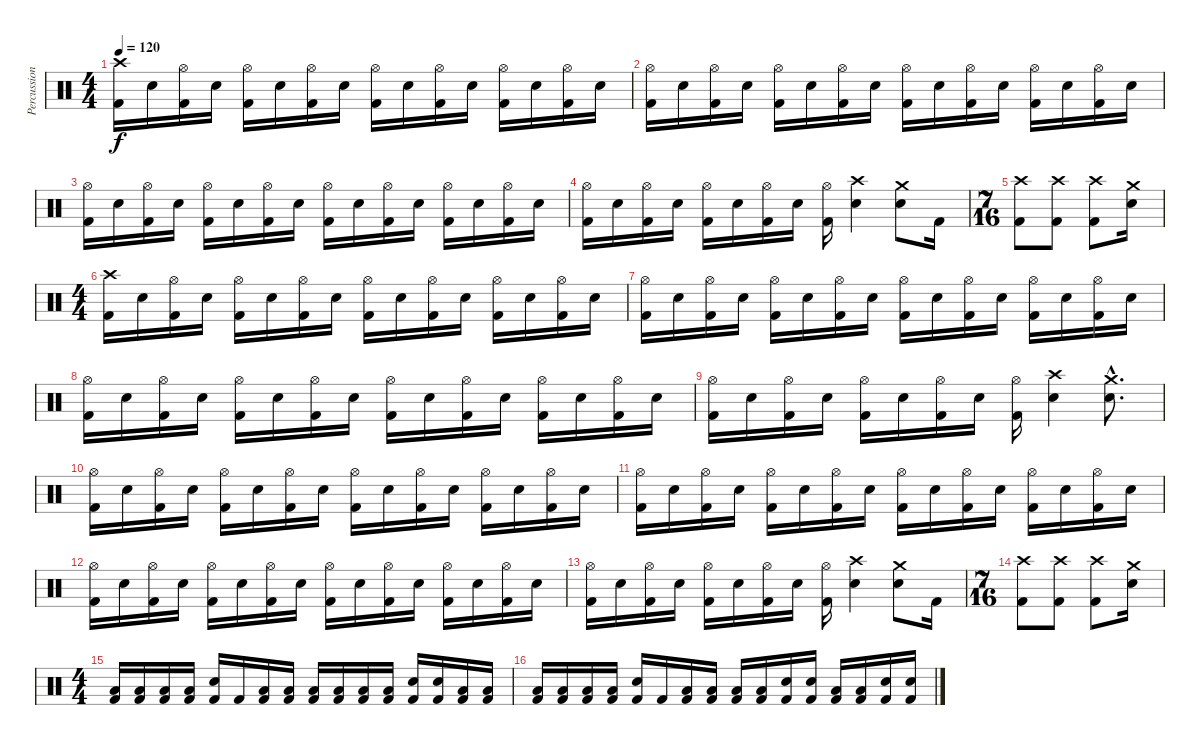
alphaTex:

\track ("Percussion" "Percussion") {instrument percussion}
\staff {score}
\articulation defaults
\ts (4 4)
\tempo 120
\clef neutral
\ks c
("Crash high (hit)" "Kick (hit) 2").16{dy f} "Electric Snare (hit)".16 ("Hi-Hat (open)" "Kick (hit) 2").16 "Electric Snare (hit)".16 ("Hi-Hat (open)" "Kick (hit) 2").16 "Electric Snare (hit)".16 ("Hi-Hat (open)" "Kick (hit) 2").16 "Electric Snare (hit)".16 ("Hi-Hat (open)" "Kick (hit) 2").16 "Electric Snare (hit)".16 ("Hi-Hat (open)" "Kick (hit) 2").16 "Electric Snare (hit)".16 ("Hi-Hat (open)" "Kick (hit) 2").16 "Electric Snare (hit)".16 ("Hi-Hat (open)" "Kick (hit) 2").16 "Electric Snare (hit)".16 |
("Hi-Hat (open)" "Kick (hit) 2").16 "Electric Snare (hit)".16 ("Hi-Hat (open)" "Kick (hit) 2").16 "Electric Snare (hit)".16 ("Hi-Hat (open)" "Kick (hit) 2").16 "Electric Snare (hit)".16 ("Hi-Hat (open)" "Kick (hit) 2").16 "Electric Snare (hit)".16 ("Hi-Hat (open)" "Kick (hit) 2").16 "Electric Snare (hit)".16 ("Hi-Hat (open)" "Kick (hit) 2").16 "Electric Snare (hit)".16 ("Hi-Hat (open)" "Kick (hit) 2").16 "Electric Snare (hit)".16 ("Hi-Hat (open)" "Kick (hit) 2").16 "Electric Snare (hit)".16 |
("Hi-Hat (open)" "Kick (hit) 2").16 "Electric Snare (hit)".16 ("Hi-Hat (open)" "Kick (hit) 2").16 "Electric Snare (hit)".16 ("Hi-Hat (open)" "Kick (hit) 2").16 "Electric Snare (hit)".16 ("Hi-Hat (open)" "Kick (hit) 2").16 "Electric Snare (hit)".16 ("Hi-Hat (open)" "Kick (hit) 2").16 "Electric Snare (hit)".16 ("Hi-Hat (open)" "Kick (hit) 2").16 "Electric Snare (hit)".16 ("Hi-Hat (open)" "Kick (hit) 2").16 "Electric Snare (hit)".16 ("Hi-Hat (open)" "Kick (hit) 2").16 "Electric Snare (hit)".16 |
("Hi-Hat (open)" "Kick (hit) 2").16 "Electric Snare (hit)".16 ("Hi-Hat (open)" "Kick (hit) 2").16 "Electric Snare (hit)".16 ("Hi-Hat (open)" "Kick (hit) 2").16 "Electric Snare (hit)".16 ("Hi-Hat (open)" "Kick (hit) 2").16 "Electric Snare (hit)".16 ("Hi-Hat (open)" "Kick (hit) 2").16 ("Crash high (hit)" "Electric Snare (hit)").4 ("Crash medium (hit)" "Electric Snare (hit)").8 "Kick (hit) 2".16 |
\ts (7 16)
("Crash high (hit)" "Kick (hit) 2").8 ("Crash high (hit)" "Kick (hit) 2").8 ("Crash high (hit)" "Kick (hit) 2").8 ("Crash medium (hit)" "Electric Snare (hit)").16 |
\ts (4 4)
("Crash high (hit)" "Kick (hit) 2").16 "Electric Snare (hit)".16 ("Hi-Hat (open)" "Kick (hit) 2").16 "Electric Snare (hit)".16 ("Hi-Hat (open)" "Kick (hit) 2").16 "Electric Snare (hit)".16 ("Hi-Hat (open)" "Kick (hit) 2").16 "Electric Snare (hit)".16 ("Hi-Hat (open)" "Kick (hit) 2").16 "Electric Snare (hit)".16 ("Hi-Hat (open)" "Kick (hit) 2").16 "Electric Snare (hit)".16 ("Hi-Hat (open)" "Kick (hit) 2").16 "Electric Snare (hit)".16 ("Hi-Hat (open)" "Kick (hit) 2").16 "Electric Snare (hit)".16 |
("Hi-Hat (open)" "Kick (hit) 2").16 "Electric Snare (hit)".16 ("Hi-Hat (open)" "Kick (hit) 2").16 "Electric Snare (hit)".16 ("Hi-Hat (open)" "Kick (hit) 2").16 "Electric Snare (hit)".16 ("Hi-Hat (open)" "Kick (hit) 2").16 "Electric Snare (hit)".16 ("Hi-Hat (open)" "Kick (hit) 2").16 "Electric Snare (hit)".16 ("Hi-Hat (open)" "Kick (hit) 2").16 "Electric Snare (hit)".16 ("Hi-Hat (open)" "Kick (hit) 2").16 "Electric Snare (hit)".16 ("Hi-Hat (open)" "Kick (hit) 2").16 "Electric Snare (hit)".16 |
("Hi-Hat (open)" "Kick (hit) 2").16 "Electric Snare (hit)".16 ("Hi-Hat (open)" "Kick (hit) 2").16 "Electric Snare (hit)".16 ("Hi-Hat (open)" "Kick (hit) 2").16 "Electric Snare (hit)".16 ("Hi-Hat (open)" "Kick (hit) 2").16 "Electric Snare (hit)".16 ("Hi-Hat (open)" "Kick (hit) 2").16 "Electric Snare (hit)".16 ("Hi-Hat (open)" "Kick (hit) 2").16 "Electric Snare (hit)".16 ("Hi-Hat (open)" "Kick (hit) 2").16 "Electric Snare (hit)".16 ("Hi-Hat (open)" "Kick (hit) 2").16 "Electric Snare (hit)".16 |
("Hi-Hat (open)" "Kick (hit) 2").16 "Electric Snare (hit)".16 ("Hi-Hat (open)" "Kick (hit) 2").16 "Electric Snare (hit)".16 ("Hi-Hat (open)" "Kick (hit) 2").16 "Electric Snare (hit)".16 ("Hi-Hat (open)" "Kick (hit) 2").16 "Electric Snare (hit)".16 ("Hi-Hat (open)" "Kick (hit) 2").16 ("Crash high (hit)" "Electric Snare (hit)").4 ("Crash medium (hit)"{hac} "Electric Snare (hit)"{hac}).8{d} |
("Hi-Hat (open)" "Kick (hit) 2").16 "Electric Snare (hit)".16 ("Hi-Hat (open)" "Kick (hit) 2").16 "Electric Snare (hit)".16 ("Hi-Hat (open)" "Kick (hit) 2").16 "Electric Snare (hit)".16 ("Hi-Hat (open)" "Kick (hit) 2").16 "Electric Snare (hit)".16 ("Hi-Hat (open)" "Kick (hit) 2").16 "Electric Snare (hit)".16 ("Hi-Hat (open)" "Kick (hit) 2").16 "Electric Snare (hit)".16 ("Hi-Hat (open)" "Kick (hit) 2").16 "Electric Snare (hit)".16 ("Hi-Hat (open)" "Kick (hit) 2").16 "Electric Snare (hit)".16 |
("Hi-Hat (open)" "Kick (hit) 2").16 "Electric Snare (hit)".16 ("Hi-Hat (open)" "Kick (hit) 2").16 "Electric Snare (hit)".16 ("Hi-Hat (open)" "Kick (hit) 2").16 "Electric Snare (hit)".16 ("Hi-Hat (open)" "Kick (hit) 2").16 "Electric Snare (hit)".16 ("Hi-Hat (open)" "Kick (hit) 2").16 "Electric Snare (hit)".16 ("Hi-Hat (open)" "Kick (hit) 2").16 "Electric Snare (hit)".16 ("Hi-Hat (open)" "Kick (hit) 2").16 "Electric Snare (hit)".16 ("Hi-Hat (open)" "Kick (hit) 2").16 "Electric Snare (hit)".16 |
("Hi-Hat (open)" "Kick (hit) 2").16 "Electric Snare (hit)".16 ("Hi-Hat (open)" "Kick (hit) 2").16 "Electric Snare (hit)".16 ("Hi-Hat (open)" "Kick (hit) 2").16 "Electric Snare (hit)".16 ("Hi-Hat (open)" "Kick (hit) 2").16 "Electric Snare (hit)".16 ("Hi-Hat (open)" "Kick (hit) 2").16 "Electric Snare (hit)".16 ("Hi-Hat (open)" "Kick (hit) 2").16 "Electric Snare (hit)".16 ("Hi-Hat (open)" "Kick (hit) 2").16 "Electric Snare (hit)".16 ("Hi-Hat (open)" "Kick (hit) 2").16 "Electric Snare (hit)".16 |
("Hi-Hat (open)" "Kick (hit) 2").16 "Electric Snare (hit)".16 ("Hi-Hat (open)" "Kick (hit) 2").16 "Electric Snare (hit)".16 ("Hi-Hat (open)" "Kick (hit) 2").16 "Electric Snare (hit)".16 ("Hi-Hat (open)" "Kick (hit) 2").16 "Electric Snare (hit)".16 ("Hi-Hat (open)" "Kick (hit) 2").16 ("Crash high (hit)" "Electric Snare (hit)").4 ("Crash medium (hit)" "Electric Snare (hit)").8 "Kick (hit) 2".16 |
\ts (7 16)
("Crash high (hit)" "Kick (hit) 2").8 ("Crash high (hit)" "Kick (hit) 2").8 ("Crash high (hit)" "Kick (hit) 2").8 ("Crash medium (hit)" "Electric Snare (hit)").16 |
\ts (4 4)
("Low Tom (hit)" "Kick (hit) 2").16 ("Low Tom (hit)" "Kick (hit) 2").16 ("Low Tom (hit)" "Kick (hit) 2").16 ("Low Tom (hit)" "Kick (hit) 2").16 ("Electric Snare (hit)" "Kick (hit) 2").16 "Kick (hit) 2".16 ("Low Tom (hit)" "Kick (hit) 2").16 ("Low Tom (hit)" "Kick (hit) 2").16 ("Low Tom (hit)" "Kick (hit) 2").16 ("Low Tom (hit)" "Kick (hit) 2").16 ("Low Tom (hit)" "Kick (hit) 2").16 ("Low Tom (hit)" "Kick (hit) 2").16 ("Electric Snare (hit)" "Kick (hit) 2").16 ("Electric Snare (hit)" "Kick (hit) 2").16 ("Low Tom (hit)" "Kick (hit) 2").16 ("Low Tom (hit)" "Kick (hit) 2").16 |
("Low Tom (hit)" "Kick (hit) 2").16 ("Low Tom (hit)" "Kick (hit) 2").16 ("Low Tom (hit)" "Kick (hit) 2").16 ("Low Tom (hit)" "Kick (hit) 2").16 ("Electric Snare (hit)" "Kick (hit) 2").16 "Kick (hit) 2".16 ("Low Tom (hit)" "Kick (hit) 2").16 ("Low Tom (hit)" "Kick (hit) 2").16 ("Low Tom (hit)" "Kick (hit) 2").16 ("Low Tom (hit)" "Kick (hit) 2").16 ("Electric Snare (hit)" "Kick (hit) 2").16 ("Electric Snare (hit)" "Kick (hit) 2").16 ("Low Tom (hit)" "Kick (hit) 2").16 ("Low Tom (hit)" "Kick (hit) 2").16 ("Electric Snare (hit)" "Kick (hit) 2").16 ("Electric Snare (hit)" "Kick (hit) 2").16
